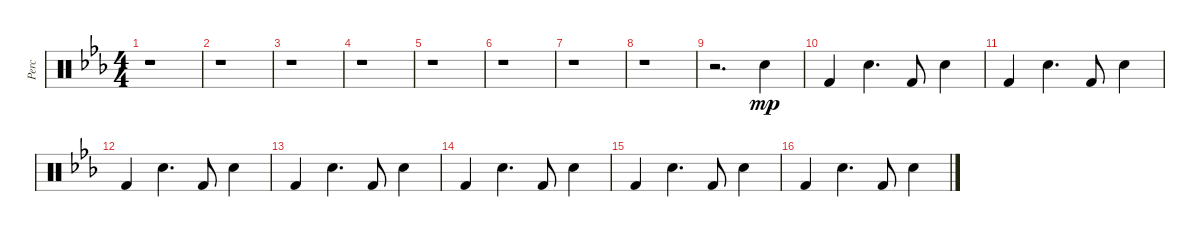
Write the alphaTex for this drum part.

\defaultSystemsLayout 4
\bracketExtendMode groupsimilarinstruments
\otherSystemsTrackNameOrientation horizontal
\track ("Percussions" "Perc") {instrument percussion}
\staff {score}
\articulation defaults
\ts (4 4)
\tempo (140 hide)
\clef neutral
\scale
0.688889
\ks cminor
r.1{dy mp beam Down} |
\scale
0.311111 r.1{beam Down} |
\tempo (140 0.43125 hide)
\scale
0.5 r.1{beam Down} |
\scale
0.5 r.1{beam Down} |
\scale
0.5 r.1{beam Down} |
\scale
0.5 r.1{beam Down} |
\scale
1.00309
\scale
0.5 r.1{beam Down} |
\scale
0.996905
\scale
0.5 r.1{beam Down} |
\scale
0.5 r.2{d beam Down} "Snare (hit) 2"{acc forcenatural}.4{beam Down} |
\scale
0.5 "Kick (hit) 2"{acc forcenatural}.4{beam Up} "Snare (hit) 2"{acc forcenatural}.4{d beam Down} "Kick (hit) 2"{acc forcenatural}.8{beam Up} "Snare (hit) 2"{acc forcenatural}.4{beam Down} |
\scale
0.5 "Kick (hit) 2"{acc forcenatural}.4{beam Up} "Snare (hit) 2"{acc forcenatural}.4{d beam Down} "Kick (hit) 2"{acc forcenatural}.8{beam Up} "Snare (hit) 2"{acc forcenatural}.4{beam Down} |
\scale
0.5 "Kick (hit) 2"{acc forcenatural}.4{beam Up} "Snare (hit) 2"{acc forcenatural}.4{d beam Down} "Kick (hit) 2"{acc forcenatural}.8{beam Up} "Snare (hit) 2"{acc forcenatural}.4{beam Down} |
"Kick (hit) 2"{acc forcenatural}.4{beam Up} "Snare (hit) 2"{acc forcenatural}.4{d beam Down} "Kick (hit) 2"{acc forcenatural}.8{beam Up} "Snare (hit) 2"{acc forcenatural}.4{beam Down} |
"Kick (hit) 2"{acc forcenatural}.4{beam Up} "Snare (hit) 2"{acc forcenatural}.4{d beam Down} "Kick (hit) 2"{acc forcenatural}.8{beam Up} "Snare (hit) 2"{acc forcenatural}.4{beam Down} |
"Kick (hit) 2"{acc forcenatural}.4{beam Up} "Snare (hit) 2"{acc forcenatural}.4{d beam Down} "Kick (hit) 2"{acc forcenatural}.8{beam Up} "Snare (hit) 2"{acc forcenatural}.4{beam Down} |
"Kick (hit) 2"{acc forcenatural}.4{beam Up} "Snare (hit) 2"{acc forcenatural}.4{d beam Down} "Kick (hit) 2"{acc forcenatural}.8{beam Up} "Snare (hit) 2"{acc forcenatural}.4{beam Down}
